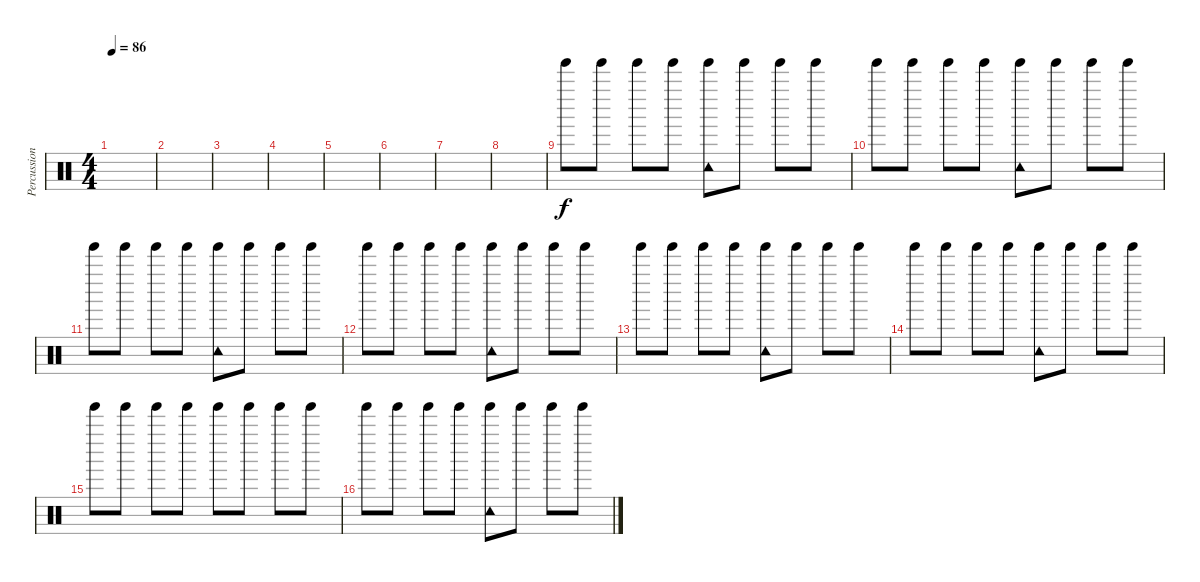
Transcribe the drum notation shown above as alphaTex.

\track ("Percussion" "Percussion") {instrument percussion}
\staff {score}
\articulation defaults
\ts (4 4)
\tempo 86
\clef neutral
\ks c
|
|
|
|
|
|
|
|
"Tinkle Bell (hit)".8 "Tinkle Bell (hit)".8 "Tinkle Bell (hit)".8 "Tinkle Bell (hit)".8 ("Tambourine (hit)" "Tinkle Bell (hit)").8 "Tinkle Bell (hit)".8 "Tinkle Bell (hit)".8 "Tinkle Bell (hit)".8 |
"Tinkle Bell (hit)".8 "Tinkle Bell (hit)".8 "Tinkle Bell (hit)".8 "Tinkle Bell (hit)".8 ("Tinkle Bell (hit)" "Tambourine (hit)").8 "Tinkle Bell (hit)".8 "Tinkle Bell (hit)".8 "Tinkle Bell (hit)".8 |
"Tinkle Bell (hit)".8 "Tinkle Bell (hit)".8 "Tinkle Bell (hit)".8 "Tinkle Bell (hit)".8 ("Tinkle Bell (hit)" "Tambourine (hit)").8 "Tinkle Bell (hit)".8 "Tinkle Bell (hit)".8 "Tinkle Bell (hit)".8 |
"Tinkle Bell (hit)".8 "Tinkle Bell (hit)".8 "Tinkle Bell (hit)".8 "Tinkle Bell (hit)".8 ("Tinkle Bell (hit)" "Tambourine (hit)").8 "Tinkle Bell (hit)".8 "Tinkle Bell (hit)".8 "Tinkle Bell (hit)".8 |
"Tinkle Bell (hit)".8 "Tinkle Bell (hit)".8 "Tinkle Bell (hit)".8 "Tinkle Bell (hit)".8 ("Tinkle Bell (hit)" "Tambourine (hit)").8 "Tinkle Bell (hit)".8 "Tinkle Bell (hit)".8 "Tinkle Bell (hit)".8 |
"Tinkle Bell (hit)".8 "Tinkle Bell (hit)".8 "Tinkle Bell (hit)".8 "Tinkle Bell (hit)".8 ("Tinkle Bell (hit)" "Tambourine (hit)").8 "Tinkle Bell (hit)".8 "Tinkle Bell (hit)".8 "Tinkle Bell (hit)".8 |
"Tinkle Bell (hit)".8 "Tinkle Bell (hit)".8 "Tinkle Bell (hit)".8 "Tinkle Bell (hit)".8 "Tinkle Bell (hit)".8 "Tinkle Bell (hit)".8 "Tinkle Bell (hit)".8 "Tinkle Bell (hit)".8 |
"Tinkle Bell (hit)".8 "Tinkle Bell (hit)".8 "Tinkle Bell (hit)".8 "Tinkle Bell (hit)".8 ("Tinkle Bell (hit)" "Tambourine (hit)").8 "Tinkle Bell (hit)".8 "Tinkle Bell (hit)".8 "Tinkle Bell (hit)".8
